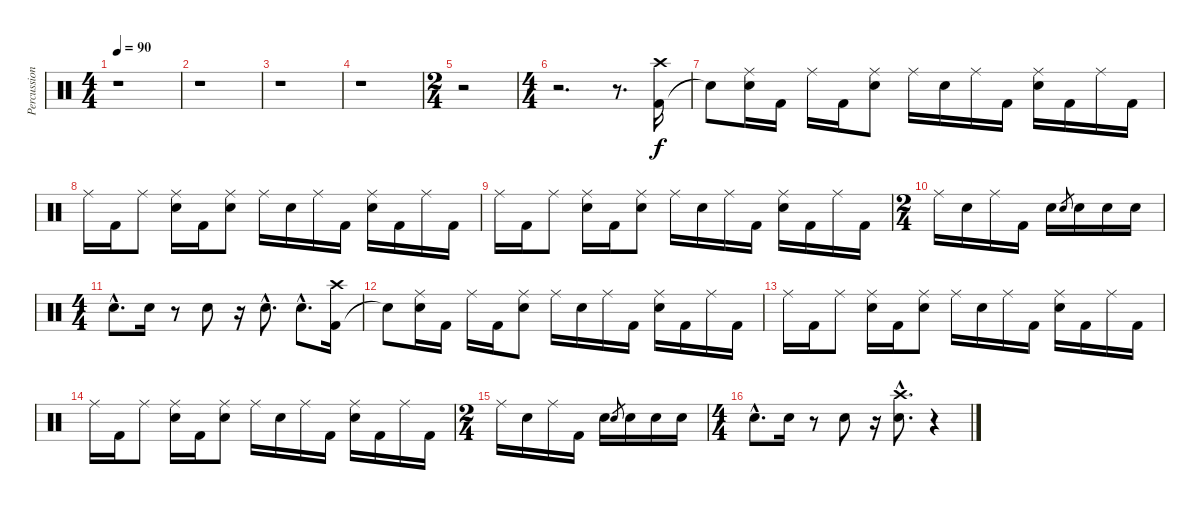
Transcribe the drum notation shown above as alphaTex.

\track ("Percussion" "Percussion") {instrument percussion}
\staff {score}
\articulation defaults
\ts (4 4)
\tempo 90
\clef neutral
\ks c
r.1{dy f} |
r.1 |
r.1 |
r.1 |
\ts (2 4)
r.2 |
\ts (4 4)
r.2{d} r.8{d} ("Kick (hit) 2" "Crash high (hit)").16 |
"Snare (hit)"{t}.8 ("Snare (hit) 2" "Ride (middle)").16 "Kick (hit) 2".16 "Ride (middle)".16 "Kick (hit) 2".16 ("Snare (hit) 2" "Ride (middle)").8 "Ride (middle)".16 "Snare (hit) 2".16 "Ride (middle)".16 "Kick (hit) 2".16 ("Snare (hit) 2" "Ride (middle)").16 "Kick (hit) 2".16 "Ride (middle)".16 "Kick (hit) 2".16 |
"Ride (middle)".16 "Kick (hit) 2".16 "Ride (middle)".8 ("Snare (hit) 2" "Ride (middle)").16 "Kick (hit) 2".16 ("Snare (hit) 2" "Ride (middle)").8 "Ride (middle)".16 "Snare (hit) 2".16 "Ride (middle)".16 "Kick (hit) 2".16 ("Snare (hit) 2" "Ride (middle)").16 "Kick (hit) 2".16 "Ride (middle)".16 "Kick (hit) 2".16 |
"Ride (middle)".16 "Kick (hit) 2".16 "Ride (middle)".8 ("Snare (hit) 2" "Ride (middle)").16 "Kick (hit) 2".16 ("Snare (hit) 2" "Ride (middle)").8 "Ride (middle)".16 "Snare (hit) 2".16 "Ride (middle)".16 "Kick (hit) 2".16 ("Snare (hit) 2" "Ride (middle)").16 "Kick (hit) 2".16 "Ride (middle)".16 "Kick (hit) 2".16 |
\ts (2 4)
"Ride (middle)".16 "Snare (hit) 2".16 "Ride (middle)".16 "Kick (hit) 2".16 "Snare (hit) 2".16 "Snare (hit) 2".8{gr} "Snare (hit) 2".16 "Snare (hit) 2".16 "Snare (hit) 2".16 |
\ts (4 4)
"Snare (hit) 2"{hac}.8{d} "Snare (hit) 2".16 r.8 "Snare (hit) 2".8 r.16 "Snare (hit) 2"{hac}.8{d} "Snare (hit) 2"{hac}.8{d} ("Kick (hit) 2" "Crash high (hit)").16 |
"Snare (hit)"{t}.8 ("Snare (hit) 2" "Ride (middle)").16 "Kick (hit) 2".16 "Ride (middle)".16 "Kick (hit) 2".16 ("Snare (hit) 2" "Ride (middle)").8 "Ride (middle)".16 "Snare (hit) 2".16 "Ride (middle)".16 "Kick (hit) 2".16 ("Snare (hit) 2" "Ride (middle)").16 "Kick (hit) 2".16 "Ride (middle)".16 "Kick (hit) 2".16 |
"Ride (middle)".16 "Kick (hit) 2".16 "Ride (middle)".8 ("Snare (hit) 2" "Ride (middle)").16 "Kick (hit) 2".16 ("Snare (hit) 2" "Ride (middle)").8 "Ride (middle)".16 "Snare (hit) 2".16 "Ride (middle)".16 "Kick (hit) 2".16 ("Snare (hit) 2" "Ride (middle)").16 "Kick (hit) 2".16 "Ride (middle)".16 "Kick (hit) 2".16 |
"Ride (middle)".16 "Kick (hit) 2".16 "Ride (middle)".8 ("Snare (hit) 2" "Ride (middle)").16 "Kick (hit) 2".16 ("Snare (hit) 2" "Ride (middle)").8 "Ride (middle)".16 "Snare (hit) 2".16 "Ride (middle)".16 "Kick (hit) 2".16 ("Snare (hit) 2" "Ride (middle)").16 "Kick (hit) 2".16 "Ride (middle)".16 "Kick (hit) 2".16 |
\ts (2 4)
"Ride (middle)".16 "Snare (hit) 2".16 "Ride (middle)".16 "Kick (hit) 2".16 "Snare (hit) 2".16 "Snare (hit) 2".8{gr} "Snare (hit) 2".16 "Snare (hit) 2".16 "Snare (hit) 2".16 |
\ts (4 4)
"Snare (hit) 2"{hac}.8{d} "Snare (hit) 2".16 r.8 "Snare (hit) 2".8 r.16 ("Snare (hit) 2"{hac} "Crash high (hit)"{hac}).8{d} r.4
